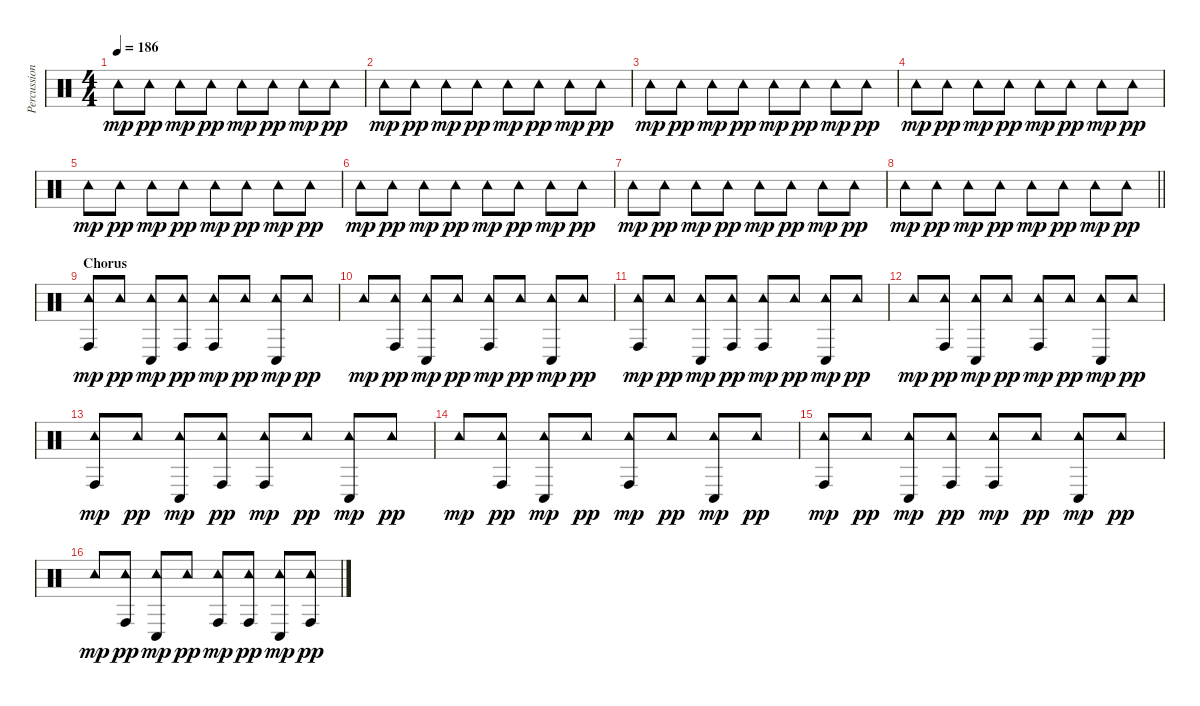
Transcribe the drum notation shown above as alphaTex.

\track ("Percussion" "Percussion") {instrument percussion}
\staff {score}
\articulation defaults
\ts (4 4)
\tempo 186
\clef neutral
\ks c "Tambourine (hit)".8{dy mp} "Tambourine (hit)".8{dy pp} "Tambourine (hit)".8{dy mp} "Tambourine (hit)".8{dy pp} "Tambourine (hit)".8{dy mp} "Tambourine (hit)".8{dy pp} "Tambourine (hit)".8{dy mp} "Tambourine (hit)".8{dy pp}
|
"Tambourine (hit)".8{dy mp} "Tambourine (hit)".8{dy pp} "Tambourine (hit)".8{dy mp} "Tambourine (hit)".8{dy pp} "Tambourine (hit)".8{dy mp} "Tambourine (hit)".8{dy pp} "Tambourine (hit)".8{dy mp} "Tambourine (hit)".8{dy pp} |
"Tambourine (hit)".8{dy mp} "Tambourine (hit)".8{dy pp} "Tambourine (hit)".8{dy mp} "Tambourine (hit)".8{dy pp} "Tambourine (hit)".8{dy mp} "Tambourine (hit)".8{dy pp} "Tambourine (hit)".8{dy mp} "Tambourine (hit)".8{dy pp} |
"Tambourine (hit)".8{dy mp} "Tambourine (hit)".8{dy pp} "Tambourine (hit)".8{dy mp} "Tambourine (hit)".8{dy pp} "Tambourine (hit)".8{dy mp} "Tambourine (hit)".8{dy pp} "Tambourine (hit)".8{dy mp} "Tambourine (hit)".8{dy pp} |
"Tambourine (hit)".8{dy mp} "Tambourine (hit)".8{dy pp} "Tambourine (hit)".8{dy mp} "Tambourine (hit)".8{dy pp} "Tambourine (hit)".8{dy mp} "Tambourine (hit)".8{dy pp} "Tambourine (hit)".8{dy mp} "Tambourine (hit)".8{dy pp} |
"Tambourine (hit)".8{dy mp} "Tambourine (hit)".8{dy pp} "Tambourine (hit)".8{dy mp} "Tambourine (hit)".8{dy pp} "Tambourine (hit)".8{dy mp} "Tambourine (hit)".8{dy pp} "Tambourine (hit)".8{dy mp} "Tambourine (hit)".8{dy pp} |
"Tambourine (hit)".8{dy mp} "Tambourine (hit)".8{dy pp} "Tambourine (hit)".8{dy mp} "Tambourine (hit)".8{dy pp} "Tambourine (hit)".8{dy mp} "Tambourine (hit)".8{dy pp} "Tambourine (hit)".8{dy mp} "Tambourine (hit)".8{dy pp} |
\barLineRight lightlight "Tambourine (hit)".8{dy mp} "Tambourine (hit)".8{dy pp} "Tambourine (hit)".8{dy mp} "Tambourine (hit)".8{dy pp} "Tambourine (hit)".8{dy mp} "Tambourine (hit)".8{dy pp} "Tambourine (hit)".8{dy mp} "Tambourine (hit)".8{dy pp}
|
\section ("" "Chorus")
("Tambourine (hit)" "Conga high (hit)").8{dy mp} "Tambourine (hit)".8{dy pp} ("Tambourine (hit)" "Conga low (hit)").8{dy mp} ("Tambourine (hit)" "Conga high (hit)").8{dy pp} ("Tambourine (hit)" "Conga high (hit)").8{dy mp} "Tambourine (hit)".8{dy pp} ("Tambourine (hit)" "Conga low (hit)").8{dy mp} "Tambourine (hit)".8{dy pp} |
"Tambourine (hit)".8{dy mp} ("Tambourine (hit)" "Conga high (hit)").8{dy pp} ("Tambourine (hit)" "Conga low (hit)").8{dy mp} "Tambourine (hit)".8{dy pp} ("Tambourine (hit)" "Conga high (hit)").8{dy mp} "Tambourine (hit)".8{dy pp} ("Tambourine (hit)" "Conga low (hit)").8{dy mp} "Tambourine (hit)".8{dy pp} |
("Tambourine (hit)" "Conga high (hit)").8{dy mp} "Tambourine (hit)".8{dy pp} ("Tambourine (hit)" "Conga low (hit)").8{dy mp} ("Tambourine (hit)" "Conga high (hit)").8{dy pp} ("Tambourine (hit)" "Conga high (hit)").8{dy mp} "Tambourine (hit)".8{dy pp} ("Tambourine (hit)" "Conga low (hit)").8{dy mp} "Tambourine (hit)".8{dy pp} |
"Tambourine (hit)".8{dy mp} ("Tambourine (hit)" "Conga high (hit)").8{dy pp} ("Tambourine (hit)" "Conga low (hit)").8{dy mp} "Tambourine (hit)".8{dy pp} ("Tambourine (hit)" "Conga high (hit)").8{dy mp} "Tambourine (hit)".8{dy pp} ("Tambourine (hit)" "Conga low (hit)").8{dy mp} "Tambourine (hit)".8{dy pp} |
("Tambourine (hit)" "Conga high (hit)").8{dy mp} "Tambourine (hit)".8{dy pp} ("Tambourine (hit)" "Conga low (hit)").8{dy mp} ("Tambourine (hit)" "Conga high (hit)").8{dy pp} ("Tambourine (hit)" "Conga high (hit)").8{dy mp} "Tambourine (hit)".8{dy pp} ("Tambourine (hit)" "Conga low (hit)").8{dy mp} "Tambourine (hit)".8{dy pp} |
"Tambourine (hit)".8{dy mp} ("Tambourine (hit)" "Conga high (hit)").8{dy pp} ("Tambourine (hit)" "Conga low (hit)").8{dy mp} "Tambourine (hit)".8{dy pp} ("Tambourine (hit)" "Conga high (hit)").8{dy mp} "Tambourine (hit)".8{dy pp} ("Tambourine (hit)" "Conga low (hit)").8{dy mp} "Tambourine (hit)".8{dy pp} |
("Tambourine (hit)" "Conga high (hit)").8{dy mp} "Tambourine (hit)".8{dy pp} ("Tambourine (hit)" "Conga low (hit)").8{dy mp} ("Tambourine (hit)" "Conga high (hit)").8{dy pp} ("Tambourine (hit)" "Conga high (hit)").8{dy mp} "Tambourine (hit)".8{dy pp} ("Tambourine (hit)" "Conga low (hit)").8{dy mp} "Tambourine (hit)".8{dy pp} |
"Tambourine (hit)".8{dy mp} ("Tambourine (hit)" "Conga high (hit)").8{dy pp} ("Tambourine (hit)" "Conga low (hit)").8{dy mp} "Tambourine (hit)".8{dy pp} ("Tambourine (hit)" "Conga high (hit)").8{dy mp} ("Tambourine (hit)" "Conga high (hit)").8{dy pp} ("Tambourine (hit)" "Conga low (hit)").8{dy mp} ("Tambourine (hit)" "Conga high (hit)").8{dy pp}
